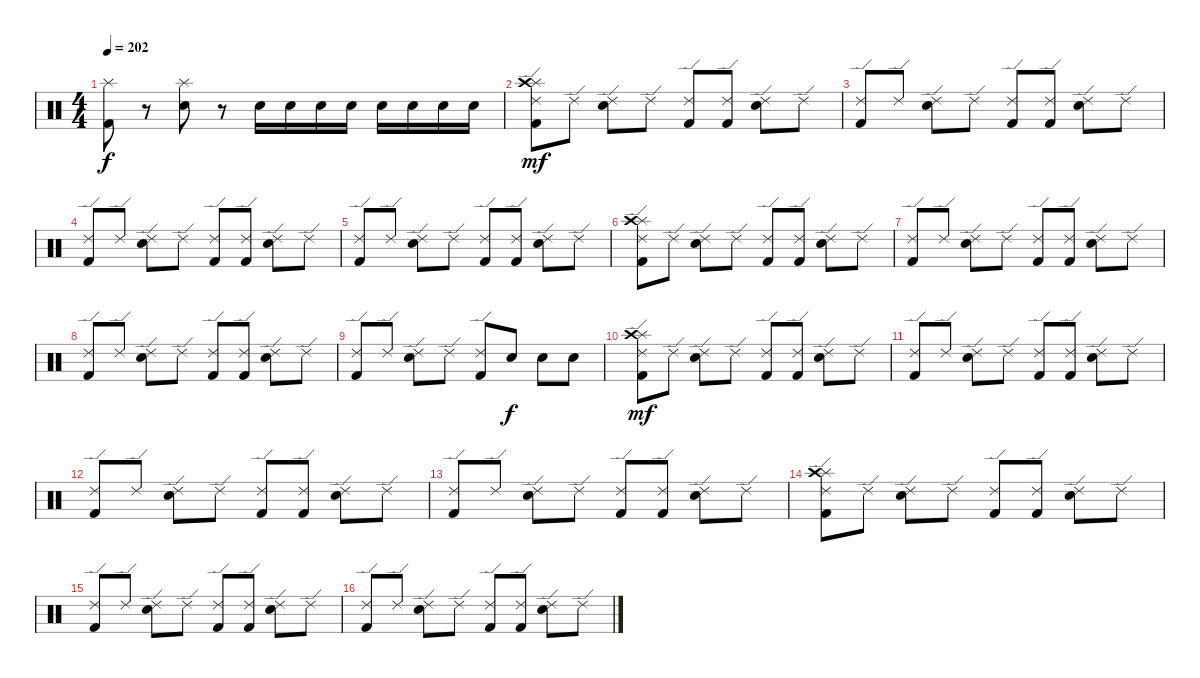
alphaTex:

\track "" {instrument percussion}
\staff {score}
\articulation defaults
\ts (4 4)
\tempo 202
\clef neutral
\ks c
("Splash (hit)" "Kick (hit) 2").8{dy f} r.8 ("Splash (hit)" "Electric Snare (hit)").8 r.8 "Electric Snare (hit)".16 "Electric Snare (hit)".16 "Electric Snare (hit)".16 "Electric Snare (hit)".16 "Electric Snare (hit)".16 "Electric Snare (hit)".16 "Electric Snare (hit)".16 "Electric Snare (hit)".16 |
("Splash (hit)" "Crash high (hit)" "Ride (edge) 2" "Kick (hit) 2").8{dy mf} "Ride (edge) 2".8 ("Ride (edge) 2" "Electric Snare (hit)").8 "Ride (edge) 2".8 ("Ride (edge) 2" "Kick (hit) 2").8 ("Ride (edge) 2" "Kick (hit) 2").8 ("Ride (edge) 2" "Electric Snare (hit)").8 "Ride (edge) 2".8 |
("Ride (edge) 2" "Kick (hit) 2").8 "Ride (edge) 2".8 ("Ride (edge) 2" "Electric Snare (hit)").8 "Ride (edge) 2".8 ("Ride (edge) 2" "Kick (hit) 2").8 ("Ride (edge) 2" "Kick (hit) 2").8 ("Ride (edge) 2" "Electric Snare (hit)").8 "Ride (edge) 2".8 |
("Ride (edge) 2" "Kick (hit) 2").8 "Ride (edge) 2".8 ("Ride (edge) 2" "Electric Snare (hit)").8 "Ride (edge) 2".8 ("Ride (edge) 2" "Kick (hit) 2").8 ("Ride (edge) 2" "Kick (hit) 2").8 ("Ride (edge) 2" "Electric Snare (hit)").8 "Ride (edge) 2".8 |
("Ride (edge) 2" "Kick (hit) 2").8 "Ride (edge) 2".8 ("Ride (edge) 2" "Electric Snare (hit)").8 "Ride (edge) 2".8 ("Ride (edge) 2" "Kick (hit) 2").8 ("Ride (edge) 2" "Kick (hit) 2").8 ("Ride (edge) 2" "Electric Snare (hit)").8 "Ride (edge) 2".8 |
("Splash (hit)" "Crash high (hit)" "Ride (edge) 2" "Kick (hit) 2").8 "Ride (edge) 2".8 ("Ride (edge) 2" "Electric Snare (hit)").8 "Ride (edge) 2".8 ("Ride (edge) 2" "Kick (hit) 2").8 ("Ride (edge) 2" "Kick (hit) 2").8 ("Ride (edge) 2" "Electric Snare (hit)").8 "Ride (edge) 2".8 |
("Ride (edge) 2" "Kick (hit) 2").8 "Ride (edge) 2".8 ("Ride (edge) 2" "Electric Snare (hit)").8 "Ride (edge) 2".8 ("Ride (edge) 2" "Kick (hit) 2").8 ("Ride (edge) 2" "Kick (hit) 2").8 ("Ride (edge) 2" "Electric Snare (hit)").8 "Ride (edge) 2".8 |
("Ride (edge) 2" "Kick (hit) 2").8 "Ride (edge) 2".8 ("Ride (edge) 2" "Electric Snare (hit)").8 "Ride (edge) 2".8 ("Ride (edge) 2" "Kick (hit) 2").8 ("Ride (edge) 2" "Kick (hit) 2").8 ("Ride (edge) 2" "Electric Snare (hit)").8 "Ride (edge) 2".8 |
("Ride (edge) 2" "Kick (hit) 2").8 "Ride (edge) 2".8 ("Ride (edge) 2" "Electric Snare (hit)").8 "Ride (edge) 2".8 ("Ride (edge) 2" "Kick (hit) 2").8 "Electric Snare (hit)".8{dy f} "Electric Snare (hit)".8 "Electric Snare (hit)".8 |
("Splash (hit)" "Crash high (hit)" "Ride (edge) 2" "Kick (hit) 2").8{dy mf} "Ride (edge) 2".8 ("Ride (edge) 2" "Electric Snare (hit)").8 "Ride (edge) 2".8 ("Ride (edge) 2" "Kick (hit) 2").8 ("Ride (edge) 2" "Kick (hit) 2").8 ("Ride (edge) 2" "Electric Snare (hit)").8 "Ride (edge) 2".8 |
("Ride (edge) 2" "Kick (hit) 2").8 "Ride (edge) 2".8 ("Ride (edge) 2" "Electric Snare (hit)").8 "Ride (edge) 2".8 ("Ride (edge) 2" "Kick (hit) 2").8 ("Ride (edge) 2" "Kick (hit) 2").8 ("Ride (edge) 2" "Electric Snare (hit)").8 "Ride (edge) 2".8 |
("Ride (edge) 2" "Kick (hit) 2").8 "Ride (edge) 2".8 ("Ride (edge) 2" "Electric Snare (hit)").8 "Ride (edge) 2".8 ("Ride (edge) 2" "Kick (hit) 2").8 ("Ride (edge) 2" "Kick (hit) 2").8 ("Ride (edge) 2" "Electric Snare (hit)").8 "Ride (edge) 2".8 |
("Ride (edge) 2" "Kick (hit) 2").8 "Ride (edge) 2".8 ("Ride (edge) 2" "Electric Snare (hit)").8 "Ride (edge) 2".8 ("Ride (edge) 2" "Kick (hit) 2").8 ("Ride (edge) 2" "Kick (hit) 2").8 ("Ride (edge) 2" "Electric Snare (hit)").8 "Ride (edge) 2".8 |
("Splash (hit)" "Crash high (hit)" "Ride (edge) 2" "Kick (hit) 2").8 "Ride (edge) 2".8 ("Ride (edge) 2" "Electric Snare (hit)").8 "Ride (edge) 2".8 ("Ride (edge) 2" "Kick (hit) 2").8 ("Ride (edge) 2" "Kick (hit) 2").8 ("Ride (edge) 2" "Electric Snare (hit)").8 "Ride (edge) 2".8 |
("Ride (edge) 2" "Kick (hit) 2").8 "Ride (edge) 2".8 ("Ride (edge) 2" "Electric Snare (hit)").8 "Ride (edge) 2".8 ("Ride (edge) 2" "Kick (hit) 2").8 ("Ride (edge) 2" "Kick (hit) 2").8 ("Ride (edge) 2" "Electric Snare (hit)").8 "Ride (edge) 2".8 |
("Ride (edge) 2" "Kick (hit) 2").8 "Ride (edge) 2".8 ("Ride (edge) 2" "Electric Snare (hit)").8 "Ride (edge) 2".8 ("Ride (edge) 2" "Kick (hit) 2").8 ("Ride (edge) 2" "Kick (hit) 2").8 ("Ride (edge) 2" "Electric Snare (hit)").8 "Ride (edge) 2".8
